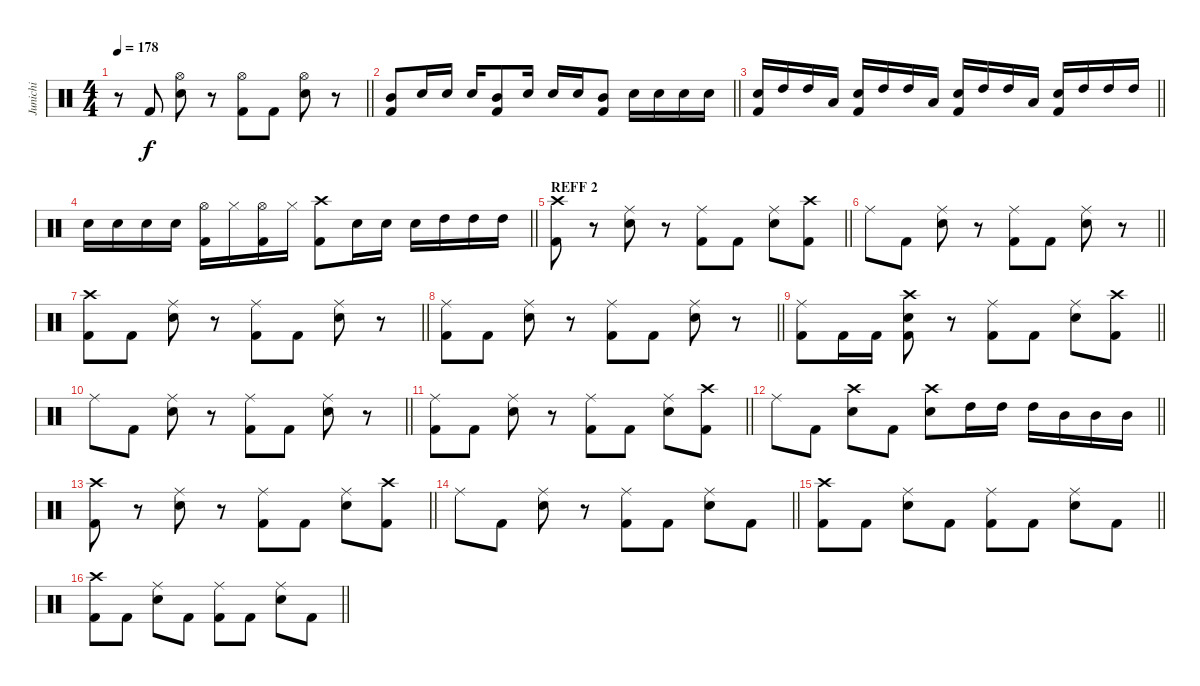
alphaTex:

\track ("Junichi" "Junichi") {instrument percussion}
\staff {score}
\articulation defaults
\ts (4 4)
\tempo 178
\clef neutral
\barLineRight lightlight
\ks c
r.8{dy f} "Kick (hit) 2".8 ("Hi-Hat (open)" "Snare (hit) 2").8 r.8 ("Hi-Hat (open)" "Kick (hit) 2").8 "Kick (hit) 2".8 ("Hi-Hat (open)" "Snare (hit) 2").8 r.8 |
\barLineRight lightlight
("Mid Tom (hit)" "Kick (hit) 2").8 "Snare (hit) 2".16 "Snare (hit) 2".16 "Snare (hit) 2".16 ("Mid Tom (hit)" "Kick (hit) 2").8 "Snare (hit) 2".16 "Snare (hit) 2".16 "Snare (hit) 2".16 ("Mid Tom (hit)" "Kick (hit) 2").8 "Snare (hit) 2".16 "Snare (hit) 2".16 "Snare (hit) 2".16 "Snare (hit) 2".16 |
\barLineRight lightlight
("Snare (hit) 2" "Kick (hit) 2").16 "High Tom (hit)".16 "High Tom (hit)".16 "Low Tom (hit)".16 ("Snare (hit) 2" "Kick (hit) 2").16 "High Tom (hit)".16 "High Tom (hit)".16 "Low Tom (hit)".16 ("Snare (hit) 2" "Kick (hit) 2").16 "High Tom (hit)".16 "High Tom (hit)".16 "Low Tom (hit)".16 ("Snare (hit) 2" "Kick (hit) 2").16 "High Tom (hit)".16 "High Tom (hit)".16 "High Tom (hit)".16 |
\barLineRight lightlight "Snare (hit) 2".16 "Snare (hit) 2".16 "Snare (hit) 2".16 "Snare (hit) 2".16
("Hi-Hat (open)" "Kick (hit) 2").16 "Hi-Hat (closed)".16 ("Hi-Hat (open)" "Kick (hit) 2").16 "Hi-Hat (closed)".16 ("Crash high (hit)" "Kick (hit) 2").8 "Snare (hit) 2".16 "Snare (hit) 2".16 "Snare (hit) 2".16 "High Tom (hit)".16 "High Tom (hit)".16 "High Tom (hit)".16 |
\section ("" "REFF 2")
\barLineRight lightlight
("Crash high (hit)" "Kick (hit) 2").8 r.8 ("Ride (middle)" "Snare (hit) 2").8 r.8 ("Ride (middle)" "Kick (hit) 2").8 "Kick (hit) 2".8 ("Ride (middle)" "Snare (hit) 2").8 ("Crash high (hit)" "Kick (hit) 2").8 |
\barLineRight lightlight "Ride (middle)".8 "Kick (hit) 2".8
("Ride (middle)" "Snare (hit) 2").8 r.8 ("Ride (middle)" "Kick (hit) 2").8 "Kick (hit) 2".8 ("Ride (middle)" "Snare (hit) 2").8 r.8 |
\barLineRight lightlight
("Crash high (hit)" "Kick (hit) 2").8 "Kick (hit) 2".8 ("Ride (middle)" "Snare (hit) 2").8 r.8 ("Ride (middle)" "Kick (hit) 2").8 "Kick (hit) 2".8 ("Ride (middle)" "Snare (hit) 2").8 r.8 |
\barLineRight lightlight
("Ride (middle)" "Kick (hit) 2").8 "Kick (hit) 2".8 ("Ride (middle)" "Snare (hit) 2").8 r.8 ("Ride (middle)" "Kick (hit) 2").8 "Kick (hit) 2".8 ("Ride (middle)" "Snare (hit) 2").8 r.8 |
\barLineRight lightlight
("Ride (middle)" "Kick (hit) 2").8 "Kick (hit) 2".16 "Kick (hit) 2".16 ("Crash high (hit)" "Snare (hit) 2" "Kick (hit) 2").8 r.8 ("Ride (middle)" "Kick (hit) 2").8 "Kick (hit) 2".8 ("Ride (middle)" "Snare (hit) 2").8 ("Crash high (hit)" "Kick (hit) 2").8 |
\barLineRight lightlight "Ride (middle)".8 "Kick (hit) 2".8
("Ride (middle)" "Snare (hit) 2").8 r.8 ("Ride (middle)" "Kick (hit) 2").8 "Kick (hit) 2".8 ("Ride (middle)" "Snare (hit) 2").8 r.8 |
\barLineRight lightlight
("Ride (middle)" "Kick (hit) 2").8 "Kick (hit) 2".8 ("Ride (middle)" "Snare (hit) 2").8 r.8 ("Ride (middle)" "Kick (hit) 2").8 "Kick (hit) 2".8 ("Ride (middle)" "Snare (hit) 2").8 ("Crash high (hit)" "Kick (hit) 2").8 |
\barLineRight lightlight "Ride (middle)".8 "Kick (hit) 2".8
("Crash high (hit)" "Snare (hit) 2").8 "Kick (hit) 2".8 ("Crash high (hit)" "Snare (hit) 2").8 "High Tom (hit)".16 "High Tom (hit)".16 "High Tom (hit)".16 "Mid Tom (hit)".16 "Mid Tom (hit)".16 "Mid Tom (hit)".16 |
\barLineRight lightlight
("Crash high (hit)" "Kick (hit) 2").8 r.8 ("Ride (middle)" "Snare (hit) 2").8 r.8 ("Ride (middle)" "Kick (hit) 2").8 "Kick (hit) 2".8 ("Ride (middle)" "Snare (hit) 2").8 ("Crash high (hit)" "Kick (hit) 2").8 |
\barLineRight lightlight "Ride (middle)".8 "Kick (hit) 2".8
("Ride (middle)" "Snare (hit) 2").8 r.8 ("Ride (middle)" "Kick (hit) 2").8 "Kick (hit) 2".8 ("Ride (middle)" "Snare (hit) 2").8 "Kick (hit) 2".8 |
\barLineRight lightlight
("Crash high (hit)" "Kick (hit) 2").8 "Kick (hit) 2".8 ("Ride (middle)" "Snare (hit) 2").8 "Kick (hit) 2".8 ("Ride (middle)" "Kick (hit) 2").8 "Kick (hit) 2".8 ("Ride (middle)" "Snare (hit) 2").8 "Kick (hit) 2".8 |
\barLineRight lightlight
("Crash high (hit)" "Kick (hit) 2").8 "Kick (hit) 2".8 ("Ride (middle)" "Snare (hit) 2").8 "Kick (hit) 2".8 ("Ride (middle)" "Kick (hit) 2").8 "Kick (hit) 2".8 ("Ride (middle)" "Snare (hit) 2").8 "Kick (hit) 2".8
